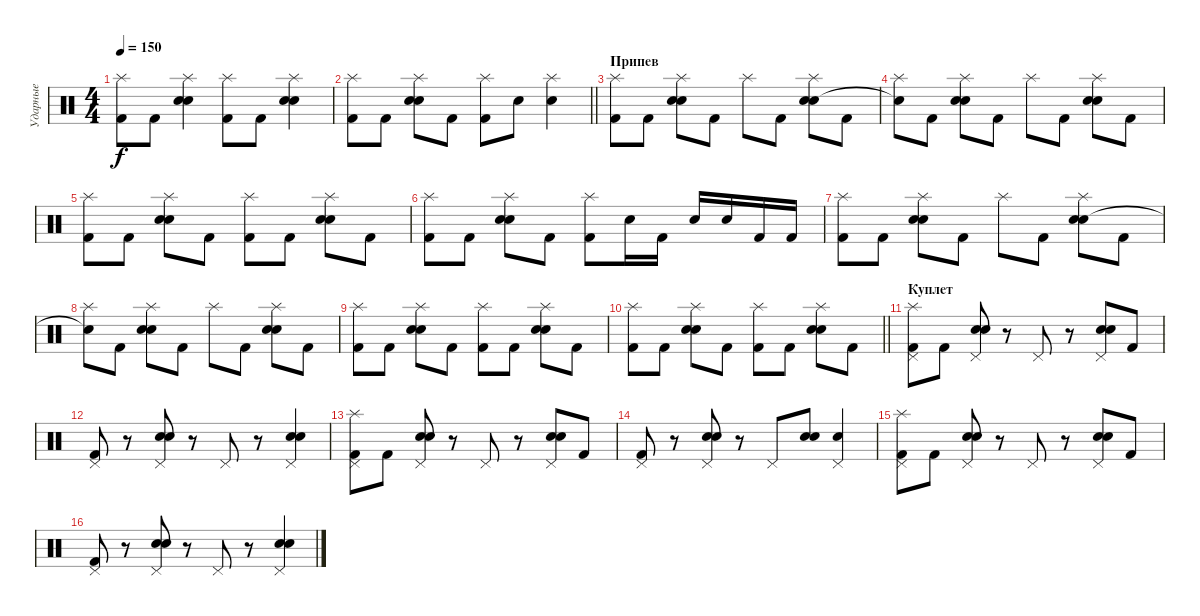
\track ("Ударные" "Ударные") {instrument percussion}
\staff {score}
\articulation defaults
\ts (4 4)
\tempo 150
\clef neutral
\ks c
("Splash (hit)" "Kick (hit) 2").8{dy f} "Kick (hit) 2".8 ("Splash (hit)" "Electric Snare (hit)" "Snare (hit) 2").4 ("Splash (hit)" "Kick (hit) 2").8 "Kick (hit) 2".8 ("Splash (hit)" "Electric Snare (hit)" "Snare (hit) 2").4 |
\barLineRight lightlight
("Splash (hit)" "Kick (hit) 2").8 "Kick (hit) 2".8 ("Splash (hit)" "Electric Snare (hit)" "Snare (hit) 2").8 "Kick (hit) 2".8 ("Splash (hit)" "Kick (hit) 2").8 "Electric Snare (hit)".8 ("Splash (hit)" "Electric Snare (hit)").4 |
\section ("" "Припев")
("Splash (hit)" "Kick (hit) 2").8 "Kick (hit) 2".8 ("Splash (hit)" "Electric Snare (hit)" "Snare (hit) 2").8 "Kick (hit) 2".8 "Splash (hit)".8 "Kick (hit) 2".8 ("Splash (hit)" "Electric Snare (hit)" "Snare (hit) 2").8 "Kick (hit) 2".8 |
("Splash (hit)" "Snare (hit)"{t}).8 "Kick (hit) 2".8 ("Splash (hit)" "Electric Snare (hit)" "Snare (hit) 2").8 "Kick (hit) 2".8 "Splash (hit)".8 "Kick (hit) 2".8 ("Splash (hit)" "Electric Snare (hit)" "Snare (hit) 2").8 "Kick (hit) 2".8 |
("Splash (hit)" "Kick (hit) 2").8 "Kick (hit) 2".8 ("Splash (hit)" "Electric Snare (hit)" "Snare (hit) 2").8 "Kick (hit) 2".8 ("Splash (hit)" "Kick (hit) 2").8 "Kick (hit) 2".8 ("Splash (hit)" "Electric Snare (hit)" "Snare (hit) 2").8 "Kick (hit) 2".8 |
("Splash (hit)" "Kick (hit) 2").8 "Kick (hit) 2".8 ("Splash (hit)" "Electric Snare (hit)" "Snare (hit) 2").8 "Kick (hit) 2".8 ("Splash (hit)" "Kick (hit) 2").8 "Electric Snare (hit)".16 "Kick (hit) 2".16 "Electric Snare (hit)".16 "Electric Snare (hit)".16 "Kick (hit) 2".16 "Kick (hit) 2".16 |
("Splash (hit)" "Kick (hit) 2").8 "Kick (hit) 2".8 ("Splash (hit)" "Electric Snare (hit)" "Snare (hit) 2").8 "Kick (hit) 2".8 "Splash (hit)".8 "Kick (hit) 2".8 ("Splash (hit)" "Electric Snare (hit)" "Snare (hit) 2").8 "Kick (hit) 2".8 |
("Splash (hit)" "Snare (hit)"{t}).8 "Kick (hit) 2".8 ("Splash (hit)" "Electric Snare (hit)" "Snare (hit) 2").8 "Kick (hit) 2".8 "Splash (hit)".8 "Kick (hit) 2".8 ("Splash (hit)" "Electric Snare (hit)" "Snare (hit) 2").8 "Kick (hit) 2".8 |
("Splash (hit)" "Kick (hit) 2").8 "Kick (hit) 2".8 ("Splash (hit)" "Electric Snare (hit)" "Snare (hit) 2").8 "Kick (hit) 2".8 ("Splash (hit)" "Kick (hit) 2").8 "Kick (hit) 2".8 ("Splash (hit)" "Electric Snare (hit)" "Snare (hit) 2").8 "Kick (hit) 2".8 |
\barLineRight lightlight
("Splash (hit)" "Kick (hit) 2").8 "Kick (hit) 2".8 ("Splash (hit)" "Electric Snare (hit)" "Snare (hit) 2").8 "Kick (hit) 2".8 ("Splash (hit)" "Kick (hit) 2").8 "Kick (hit) 2".8 ("Splash (hit)" "Electric Snare (hit)" "Snare (hit) 2").8 "Kick (hit) 2".8 |
\section ("" "Куплет")
("Pedal Hi-Hat (hit)" "Splash (hit)" "Kick (hit) 2").8 "Kick (hit) 2".8 ("Pedal Hi-Hat (hit)" "Electric Snare (hit)" "Snare (hit) 2").8 r.8 "Pedal Hi-Hat (hit)".8 r.8 ("Pedal Hi-Hat (hit)" "Electric Snare (hit)" "Snare (hit) 2").8 "Kick (hit) 2".8 |
("Pedal Hi-Hat (hit)" "Kick (hit) 2").8 r.8 ("Pedal Hi-Hat (hit)" "Electric Snare (hit)" "Snare (hit) 2").8 r.8 "Pedal Hi-Hat (hit)".8 r.8 ("Pedal Hi-Hat (hit)" "Electric Snare (hit)" "Snare (hit) 2").4 |
("Pedal Hi-Hat (hit)" "Splash (hit)" "Kick (hit) 2").8 "Kick (hit) 2".8 ("Pedal Hi-Hat (hit)" "Electric Snare (hit)" "Snare (hit) 2").8 r.8 "Pedal Hi-Hat (hit)".8 r.8 ("Pedal Hi-Hat (hit)" "Electric Snare (hit)" "Snare (hit) 2").8 "Kick (hit) 2".8 |
("Pedal Hi-Hat (hit)" "Kick (hit) 2").8 r.8 ("Pedal Hi-Hat (hit)" "Electric Snare (hit)" "Snare (hit) 2").8 r.8 "Pedal Hi-Hat (hit)".8 ("Electric Snare (hit)" "Snare (hit) 2").8 ("Pedal Hi-Hat (hit)" "Electric Snare (hit)").4 |
("Pedal Hi-Hat (hit)" "Splash (hit)" "Kick (hit) 2").8 "Kick (hit) 2".8 ("Pedal Hi-Hat (hit)" "Electric Snare (hit)" "Snare (hit) 2").8 r.8 "Pedal Hi-Hat (hit)".8 r.8 ("Pedal Hi-Hat (hit)" "Electric Snare (hit)" "Snare (hit) 2").8 "Kick (hit) 2".8 |
("Pedal Hi-Hat (hit)" "Kick (hit) 2").8 r.8 ("Pedal Hi-Hat (hit)" "Electric Snare (hit)" "Snare (hit) 2").8 r.8 "Pedal Hi-Hat (hit)".8 r.8 ("Pedal Hi-Hat (hit)" "Electric Snare (hit)" "Snare (hit) 2").4
